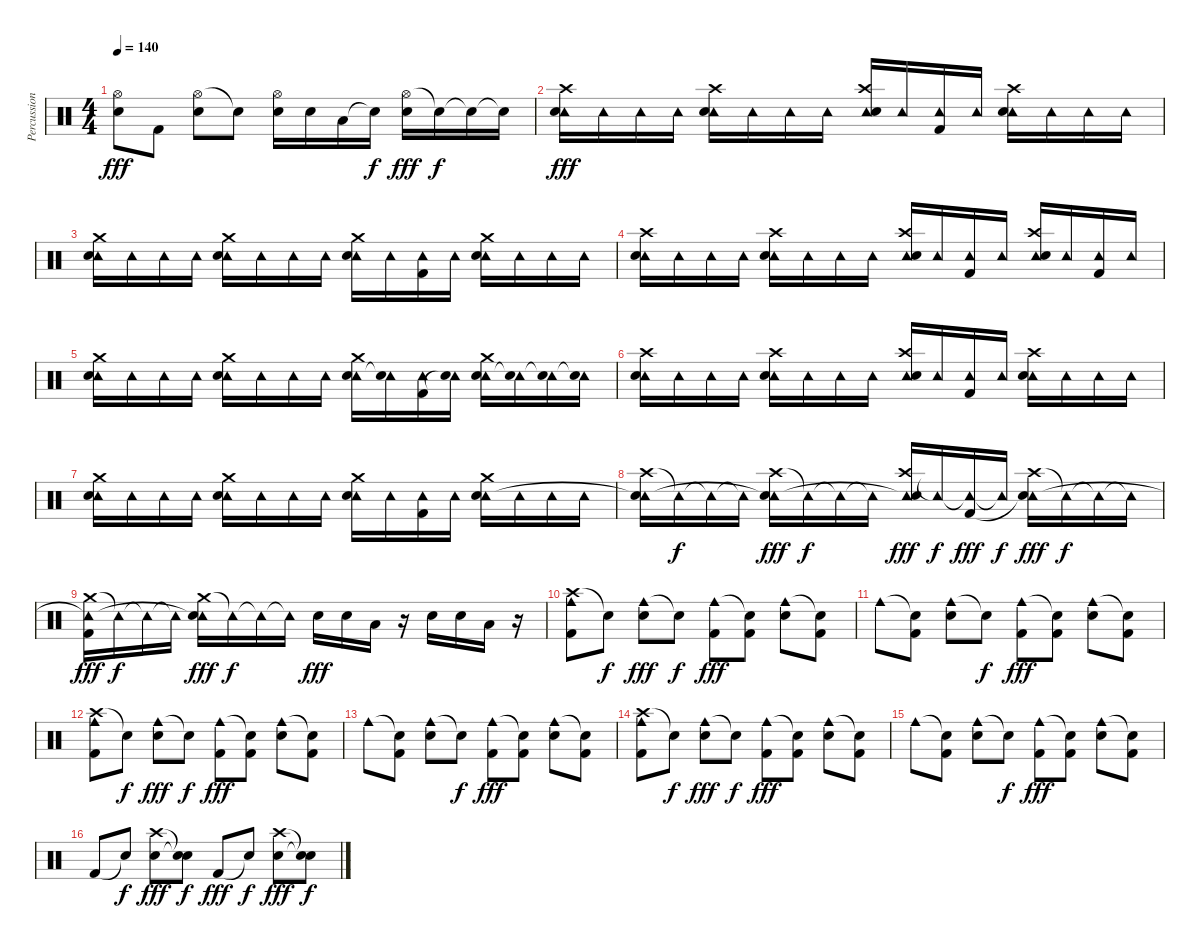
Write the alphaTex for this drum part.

\track ("Percussion" "Percussion") {instrument percussion}
\staff {score}
\articulation defaults
\ts (4 4)
\tempo 140
\clef neutral
\ks c
("Hi-Hat (open)" "Snare (hit)"{t}).8{dy fff} "Kick (hit) 2".8 ("Hi-Hat (open)" "Electric Snare (hit)").8 "Snare (hit)"{t}.8 ("Hi-Hat (open)" "Electric Snare (hit)").16 "Electric Snare (hit)".16 "Low Floor Tom (hit)".16 "Snare (hit)"{t}.16{dy f} ("Hi-Hat (open)" "Electric Snare (hit)").16{dy fff} "Snare (hit)"{t}.16{dy f} "Snare (hit)"{t}.16 "Snare (hit)"{t}.16 |
("Crash high (hit)" "Tambourine (hit)" "Electric Snare (hit)").16{dy fff} "Tambourine (hit)".16 "Tambourine (hit)".16 "Tambourine (hit)".16 ("Crash high (hit)" "Tambourine (hit)" "Electric Snare (hit)").16 "Tambourine (hit)".16 "Tambourine (hit)".16 "Tambourine (hit)".16 ("Crash high (hit)" "Tambourine (hit)" "Electric Snare (hit)").16 "Tambourine (hit)".16 ("Tambourine (hit)" "Kick (hit) 2").16 "Tambourine (hit)".16 ("Crash high (hit)" "Tambourine (hit)" "Electric Snare (hit)").16 "Tambourine (hit)".16 "Tambourine (hit)".16 "Tambourine (hit)".16 |
("Crash medium (hit)" "Tambourine (hit)" "Electric Snare (hit)").16 "Tambourine (hit)".16 "Tambourine (hit)".16 "Tambourine (hit)".16 ("Crash medium (hit)" "Tambourine (hit)" "Electric Snare (hit)").16 "Tambourine (hit)".16 "Tambourine (hit)".16 "Tambourine (hit)".16 ("Crash medium (hit)" "Tambourine (hit)" "Electric Snare (hit)").16 "Tambourine (hit)".16 ("Tambourine (hit)" "Kick (hit) 2").16 "Tambourine (hit)".16 ("Crash medium (hit)" "Tambourine (hit)" "Electric Snare (hit)").16 "Tambourine (hit)".16 "Tambourine (hit)".16 "Tambourine (hit)".16 |
("Crash high (hit)" "Tambourine (hit)" "Electric Snare (hit)").16 "Tambourine (hit)".16 "Tambourine (hit)".16 "Tambourine (hit)".16 ("Crash high (hit)" "Tambourine (hit)" "Electric Snare (hit)").16 "Tambourine (hit)".16 "Tambourine (hit)".16 "Tambourine (hit)".16 ("Crash high (hit)" "Tambourine (hit)" "Electric Snare (hit)").16 "Tambourine (hit)".16 ("Tambourine (hit)" "Kick (hit) 2").16 "Tambourine (hit)".16 ("Crash high (hit)" "Tambourine (hit)" "Electric Snare (hit)").16 "Tambourine (hit)".16 ("Tambourine (hit)" "Kick (hit) 2").16 "Tambourine (hit)".16 |
("Crash medium (hit)" "Tambourine (hit)" "Electric Snare (hit)").16 "Tambourine (hit)".16 "Tambourine (hit)".16 "Tambourine (hit)".16 ("Crash medium (hit)" "Tambourine (hit)" "Electric Snare (hit)").16 "Tambourine (hit)".16 "Tambourine (hit)".16 "Tambourine (hit)".16 ("Crash medium (hit)" "Tambourine (hit)" "Electric Snare (hit)").16 ("Tambourine (hit)" "Electric Snare (hit)"{t}).16 ("Tambourine (hit)" "Kick (hit) 2").16 ("Tambourine (hit)" "Snare (hit)"{t}).16 ("Crash medium (hit)" "Tambourine (hit)" "Electric Snare (hit)").16 ("Tambourine (hit)" "Electric Snare (hit)"{t}).16 ("Tambourine (hit)" "Electric Snare (hit)"{t}).16 ("Tambourine (hit)" "Snare (hit)"{t}).16 |
("Crash high (hit)" "Tambourine (hit)" "Electric Snare (hit)").16 "Tambourine (hit)".16 "Tambourine (hit)".16 "Tambourine (hit)".16 ("Crash high (hit)" "Tambourine (hit)" "Electric Snare (hit)").16 "Tambourine (hit)".16 "Tambourine (hit)".16 "Tambourine (hit)".16 ("Crash high (hit)" "Tambourine (hit)" "Electric Snare (hit)").16 "Tambourine (hit)".16 ("Tambourine (hit)" "Kick (hit) 2").16 "Tambourine (hit)".16 ("Crash high (hit)" "Tambourine (hit)" "Electric Snare (hit)").16 "Tambourine (hit)".16 "Tambourine (hit)".16 "Tambourine (hit)".16 |
("Crash medium (hit)" "Tambourine (hit)" "Electric Snare (hit)").16 "Tambourine (hit)".16 "Tambourine (hit)".16 "Tambourine (hit)".16 ("Crash medium (hit)" "Tambourine (hit)" "Electric Snare (hit)").16 "Tambourine (hit)".16 "Tambourine (hit)".16 "Tambourine (hit)".16 ("Crash medium (hit)" "Tambourine (hit)" "Electric Snare (hit)").16 "Tambourine (hit)".16 ("Tambourine (hit)" "Kick (hit) 2").16 "Tambourine (hit)".16 ("Crash medium (hit)" "Tambourine (hit)" "Electric Snare (hit)").16 "Tambourine (hit)".16 "Tambourine (hit)".16 "Tambourine (hit)".16 |
("Crash high (hit)" "Tambourine (hit)"{t} "Electric Snare (hit)").16 "Tambourine (hit)"{t}.16{dy f} "Tambourine (hit)"{t}.16 "Tambourine (hit)"{t}.16 ("Crash high (hit)" "Tambourine (hit)"{t} "Electric Snare (hit)").16{dy fff} "Tambourine (hit)"{t}.16{dy f} "Tambourine (hit)"{t}.16 "Tambourine (hit)"{t}.16 ("Crash high (hit)" "Tambourine (hit)"{t} "Electric Snare (hit)").16{dy fff} "Tambourine (hit)"{t}.16{dy f} ("Tambourine (hit)"{t} "Kick (hit) 2").16{dy fff} "Tambourine (hit)"{t}.16{dy f} ("Crash high (hit)" "Tambourine (hit)"{t} "Electric Snare (hit)").16{dy fff} "Tambourine (hit)"{t}.16{dy f} "Tambourine (hit)"{t}.16 "Tambourine (hit)"{t}.16 |
("Crash medium (hit)" "Tambourine (hit)"{t} "Kick (hit) 2").16{dy fff} "Tambourine (hit)"{t}.16{dy f} "Tambourine (hit)"{t}.16 "Tambourine (hit)"{t}.16 ("Crash medium (hit)" "Tambourine (hit)"{t} "Electric Snare (hit)").16{dy fff} "Tambourine (hit)"{t}.16{dy f} "Tambourine (hit)"{t}.16 "Tambourine (hit)"{t}.16 "Electric Snare (hit)".16{dy fff} "Electric Snare (hit)".16 "Low Floor Tom (hit)".16 r.16 "Electric Snare (hit)".16 "Electric Snare (hit)".16 "Low Floor Tom (hit)".16 r.16 |
("Crash high (hit)" "Cowbell medium (hit)" "Kick (hit) 2").8 "Snare (hit)"{t}.8{dy f} ("Cowbell medium (hit)" "Electric Snare (hit)").8{dy fff} "Snare (hit)"{t}.8{dy f} ("Cowbell medium (hit)" "Kick (hit) 2").8{dy fff} ("Snare (hit)"{t} "Kick (hit) 2").8 ("Cowbell medium (hit)" "Electric Snare (hit)").8 ("Snare (hit)"{t} "Kick (hit) 2").8 |
"Cowbell medium (hit)".8 ("Snare (hit)"{t} "Kick (hit) 2").8 ("Cowbell medium (hit)" "Electric Snare (hit)").8 "Snare (hit)"{t}.8{dy f} ("Cowbell medium (hit)" "Kick (hit) 2").8{dy fff} ("Snare (hit)"{t} "Kick (hit) 2").8 ("Cowbell medium (hit)" "Electric Snare (hit)").8 ("Snare (hit)"{t} "Kick (hit) 2").8 |
("Crash high (hit)" "Cowbell medium (hit)" "Kick (hit) 2").8 "Snare (hit)"{t}.8{dy f} ("Cowbell medium (hit)" "Electric Snare (hit)").8{dy fff} "Snare (hit)"{t}.8{dy f} ("Cowbell medium (hit)" "Kick (hit) 2").8{dy fff} ("Snare (hit)"{t} "Kick (hit) 2").8 ("Cowbell medium (hit)" "Electric Snare (hit)").8 ("Snare (hit)"{t} "Kick (hit) 2").8 |
"Cowbell medium (hit)".8 ("Snare (hit)"{t} "Kick (hit) 2").8 ("Cowbell medium (hit)" "Electric Snare (hit)").8 "Snare (hit)"{t}.8{dy f} ("Cowbell medium (hit)" "Kick (hit) 2").8{dy fff} ("Snare (hit)"{t} "Kick (hit) 2").8 ("Cowbell medium (hit)" "Electric Snare (hit)").8 ("Snare (hit)"{t} "Kick (hit) 2").8 |
("Crash high (hit)" "Cowbell medium (hit)" "Kick (hit) 2").8 "Snare (hit)"{t}.8{dy f} ("Cowbell medium (hit)" "Electric Snare (hit)").8{dy fff} "Snare (hit)"{t}.8{dy f} ("Cowbell medium (hit)" "Kick (hit) 2").8{dy fff} ("Snare (hit)"{t} "Kick (hit) 2").8 ("Cowbell medium (hit)" "Electric Snare (hit)").8 ("Snare (hit)"{t} "Kick (hit) 2").8 |
"Cowbell medium (hit)".8 ("Snare (hit)"{t} "Kick (hit) 2").8 ("Cowbell medium (hit)" "Electric Snare (hit)").8 "Snare (hit)"{t}.8{dy f} ("Cowbell medium (hit)" "Kick (hit) 2").8{dy fff} ("Snare (hit)"{t} "Kick (hit) 2").8 ("Cowbell medium (hit)" "Electric Snare (hit)").8 ("Snare (hit)"{t} "Kick (hit) 2").8 |
"Kick (hit) 2".8 "Snare (hit)"{t}.8{dy f} ("Crash high (hit)" "Electric Snare (hit)").8{dy fff} ("Snare (hit)"{t} "Snare (hit)"{t}).8{dy f} "Kick (hit) 2".8{dy fff} "Snare (hit)"{t}.8{dy f} ("Crash high (hit)" "Electric Snare (hit)").8{dy fff} ("Snare (hit)"{t} "Snare (hit)"{t}).8{dy f}
